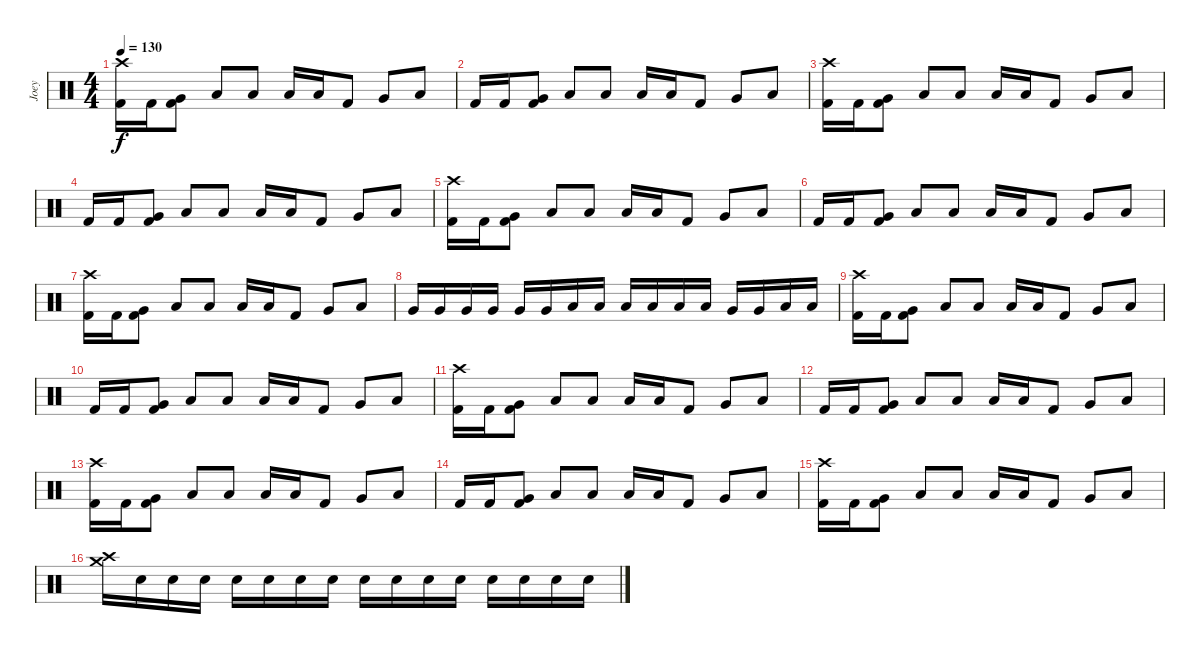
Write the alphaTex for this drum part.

\track ("Joey" "Joey") {instrument percussion}
\staff {score}
\articulation defaults
\ts (4 4)
\tempo 130
\clef neutral
\ks c
("Crash high (hit)" "Kick (hit) 2").16{dy f} "Kick (hit) 2".16 ("Very Low Tom (hit)" "Kick (hit) 2").8 "Low Floor Tom (hit)".8 "Low Tom (hit)".8 "Low Tom (hit)".16 "Low Tom (hit)".16 "Kick (hit) 2".8 "Very Low Tom (hit)".8 "Low Floor Tom (hit)".8 |
"Kick (hit) 2".16 "Kick (hit) 2".16 ("Very Low Tom (hit)" "Kick (hit) 2").8 "Low Floor Tom (hit)".8 "Low Tom (hit)".8 "Low Tom (hit)".16 "Low Tom (hit)".16 "Kick (hit) 2".8 "Very Low Tom (hit)".8 "Low Floor Tom (hit)".8 |
("Crash high (hit)" "Kick (hit) 2").16 "Kick (hit) 2".16 ("Very Low Tom (hit)" "Kick (hit) 2").8 "Low Floor Tom (hit)".8 "Low Tom (hit)".8 "Low Tom (hit)".16 "Low Tom (hit)".16 "Kick (hit) 2".8 "Very Low Tom (hit)".8 "Low Floor Tom (hit)".8 |
"Kick (hit) 2".16 "Kick (hit) 2".16 ("Very Low Tom (hit)" "Kick (hit) 2").8 "Low Floor Tom (hit)".8 "Low Tom (hit)".8 "Low Tom (hit)".16 "Low Tom (hit)".16 "Kick (hit) 2".8 "Very Low Tom (hit)".8 "Low Floor Tom (hit)".8 |
("Crash high (hit)" "Kick (hit) 2").16 "Kick (hit) 2".16 ("Very Low Tom (hit)" "Kick (hit) 2").8 "Low Floor Tom (hit)".8 "Low Tom (hit)".8 "Low Tom (hit)".16 "Low Tom (hit)".16 "Kick (hit) 2".8 "Very Low Tom (hit)".8 "Low Floor Tom (hit)".8 |
"Kick (hit) 2".16 "Kick (hit) 2".16 ("Very Low Tom (hit)" "Kick (hit) 2").8 "Low Floor Tom (hit)".8 "Low Tom (hit)".8 "Low Tom (hit)".16 "Low Tom (hit)".16 "Kick (hit) 2".8 "Very Low Tom (hit)".8 "Low Floor Tom (hit)".8 |
("Crash high (hit)" "Kick (hit) 2").16 "Kick (hit) 2".16 ("Very Low Tom (hit)" "Kick (hit) 2").8 "Low Floor Tom (hit)".8 "Low Tom (hit)".8 "Low Tom (hit)".16 "Low Tom (hit)".16 "Kick (hit) 2".8 "Very Low Tom (hit)".8 "Low Floor Tom (hit)".8 |
"Very Low Tom (hit)".16 "Very Low Tom (hit)".16 "Very Low Tom (hit)".16 "Very Low Tom (hit)".16 "Very Low Tom (hit)".16 "Very Low Tom (hit)".16 "Low Tom (hit)".16 "Low Tom (hit)".16 "Low Tom (hit)".16 "Low Tom (hit)".16 "Low Tom (hit)".16 "Low Tom (hit)".16 "Very Low Tom (hit)".16 "Very Low Tom (hit)".16 "Low Floor Tom (hit)".16 "Low Floor Tom (hit)".16 |
("Crash high (hit)" "Kick (hit) 2").16 "Kick (hit) 2".16 ("Very Low Tom (hit)" "Kick (hit) 2").8 "Low Floor Tom (hit)".8 "Low Tom (hit)".8 "Low Tom (hit)".16 "Low Tom (hit)".16 "Kick (hit) 2".8 "Very Low Tom (hit)".8 "Low Floor Tom (hit)".8 |
"Kick (hit) 2".16 "Kick (hit) 2".16 ("Very Low Tom (hit)" "Kick (hit) 2").8 "Low Floor Tom (hit)".8 "Low Tom (hit)".8 "Low Tom (hit)".16 "Low Tom (hit)".16 "Kick (hit) 2".8 "Very Low Tom (hit)".8 "Low Floor Tom (hit)".8 |
("Crash high (hit)" "Kick (hit) 2").16 "Kick (hit) 2".16 ("Very Low Tom (hit)" "Kick (hit) 2").8 "Low Floor Tom (hit)".8 "Low Tom (hit)".8 "Low Tom (hit)".16 "Low Tom (hit)".16 "Kick (hit) 2".8 "Very Low Tom (hit)".8 "Low Floor Tom (hit)".8 |
"Kick (hit) 2".16 "Kick (hit) 2".16 ("Very Low Tom (hit)" "Kick (hit) 2").8 "Low Floor Tom (hit)".8 "Low Tom (hit)".8 "Low Tom (hit)".16 "Low Tom (hit)".16 "Kick (hit) 2".8 "Very Low Tom (hit)".8 "Low Floor Tom (hit)".8 |
("Crash high (hit)" "Kick (hit) 2").16 "Kick (hit) 2".16 ("Very Low Tom (hit)" "Kick (hit) 2").8 "Low Floor Tom (hit)".8 "Low Tom (hit)".8 "Low Tom (hit)".16 "Low Tom (hit)".16 "Kick (hit) 2".8 "Very Low Tom (hit)".8 "Low Floor Tom (hit)".8 |
"Kick (hit) 2".16 "Kick (hit) 2".16 ("Very Low Tom (hit)" "Kick (hit) 2").8 "Low Floor Tom (hit)".8 "Low Tom (hit)".8 "Low Tom (hit)".16 "Low Tom (hit)".16 "Kick (hit) 2".8 "Very Low Tom (hit)".8 "Low Floor Tom (hit)".8 |
("Crash high (hit)" "Kick (hit) 2").16 "Kick (hit) 2".16 ("Very Low Tom (hit)" "Kick (hit) 2").8 "Low Floor Tom (hit)".8 "Low Tom (hit)".8 "Low Tom (hit)".16 "Low Tom (hit)".16 "Kick (hit) 2".8 "Very Low Tom (hit)".8 "Low Floor Tom (hit)".8 |
("Crash high (hit)" "Crash medium (hit)").16 "Electric Snare (hit)".16 "Electric Snare (hit)".16 "Electric Snare (hit)".16 "Electric Snare (hit)".16 "Electric Snare (hit)".16 "Electric Snare (hit)".16 "Electric Snare (hit)".16 "Electric Snare (hit)".16 "Electric Snare (hit)".16 "Electric Snare (hit)".16 "Electric Snare (hit)".16 "Electric Snare (hit)".16 "Electric Snare (hit)".16 "Electric Snare (hit)".16 "Electric Snare (hit)".16
